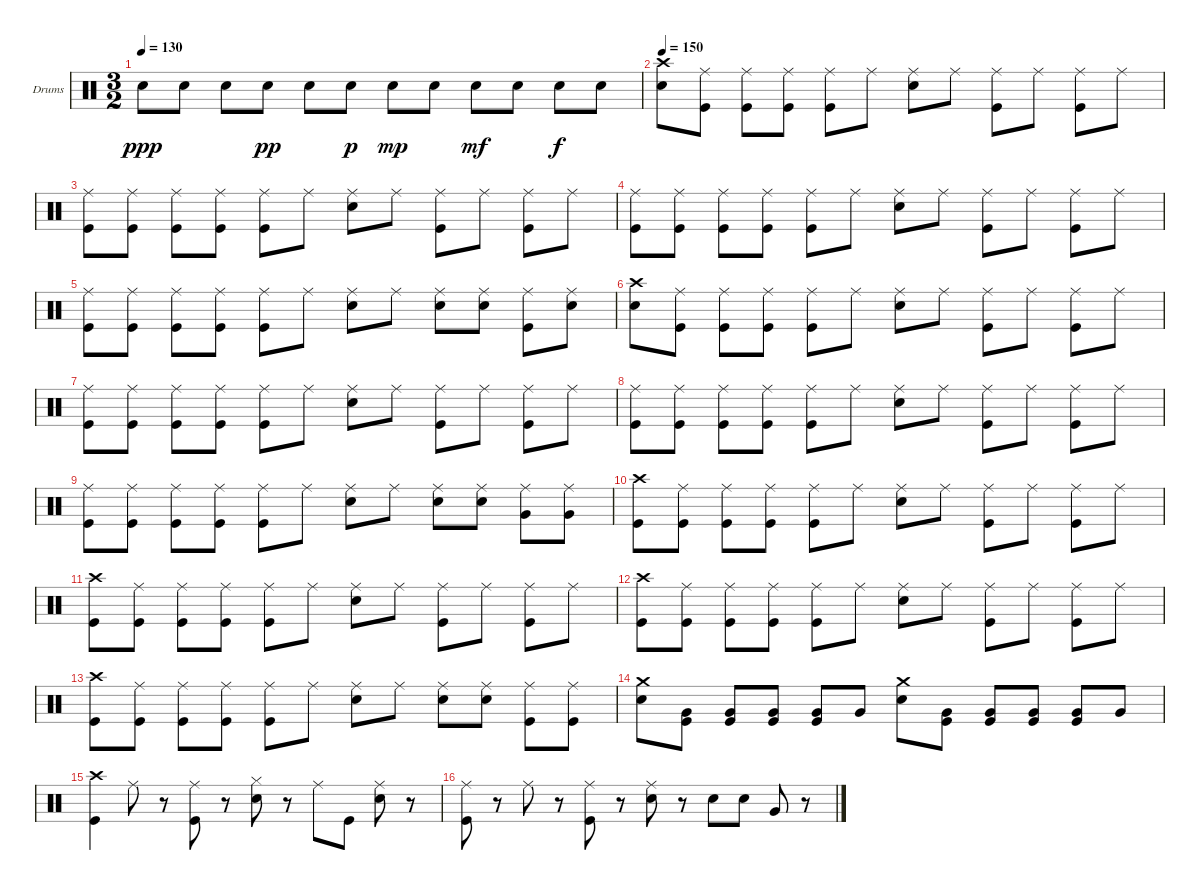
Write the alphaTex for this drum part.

\bracketExtendMode groupsimilarinstruments
\firstSystemTrackNameOrientation horizontal
\otherSystemsTrackNameOrientation horizontal
\track ("Барабаны" "Drums") {instrument percussion}
\staff {score}
\articulation defaults
\ts (3 2)
\tempo 130
\clef neutral
\ks c "Snare (hit) 2".8{dy ppp} "Snare (hit) 2".8 "Snare (hit) 2".8 "Snare (hit) 2".8{dy pp} "Snare (hit) 2".8 "Snare (hit) 2".8{dy p} "Snare (hit) 2".8{dy mp} "Snare (hit) 2".8 "Snare (hit) 2".8{dy mf} "Snare (hit) 2".8 "Snare (hit) 2".8{dy f} "Snare (hit) 2".8
|
\tempo 150
("Crash high (hit)" "Snare (hit) 2").8 ("Ride (middle)" "Kick (hit)").8 ("Ride (middle)" "Kick (hit)").8 ("Kick (hit)" "Ride (middle)").8 ("Ride (middle)" "Kick (hit)").8 "Ride (middle)".8 ("Snare (hit) 2" "Ride (middle)").8 "Ride (middle)".8 ("Kick (hit)" "Ride (middle)").8 "Ride (middle)".8 ("Ride (middle)" "Kick (hit)").8 "Ride (middle)".8 |
("Kick (hit)" "Ride (middle)").8 ("Ride (middle)" "Kick (hit)").8 ("Ride (middle)" "Kick (hit)").8 ("Ride (middle)" "Kick (hit)").8 ("Kick (hit)" "Ride (middle)").8 "Ride (middle)".8 ("Snare (hit) 2" "Ride (middle)").8 "Ride (middle)".8 ("Kick (hit)" "Ride (middle)").8 "Ride (middle)".8 ("Kick (hit)" "Ride (middle)").8 "Ride (middle)".8 |
("Kick (hit)" "Ride (middle)").8 ("Kick (hit)" "Ride (middle)").8 ("Ride (middle)" "Kick (hit)").8 ("Ride (middle)" "Kick (hit)").8 ("Kick (hit)" "Ride (middle)").8 "Ride (middle)".8 ("Snare (hit) 2" "Ride (middle)").8 "Ride (middle)".8 ("Ride (middle)" "Kick (hit)").8 "Ride (middle)".8 ("Ride (middle)" "Kick (hit)").8 "Ride (middle)".8 |
("Kick (hit)" "Ride (middle)").8 ("Ride (middle)" "Kick (hit)").8 ("Kick (hit)" "Ride (middle)").8 ("Kick (hit)" "Ride (middle)").8 ("Ride (middle)" "Kick (hit)").8 "Ride (middle)".8 ("Ride (middle)" "Snare (hit) 2").8 "Ride (middle)".8 ("Ride (middle)" "Snare (hit) 2").8 ("Snare (hit) 2" "Ride (middle)").8 ("Kick (hit)" "Ride (middle)").8 ("Snare (hit) 2" "Ride (middle)").8 |
("Crash high (hit)" "Snare (hit) 2").8 ("Ride (middle)" "Kick (hit)").8 ("Kick (hit)" "Ride (middle)").8 ("Kick (hit)" "Ride (middle)").8 ("Kick (hit)" "Ride (middle)").8 "Ride (middle)".8 ("Snare (hit) 2" "Ride (middle)").8 "Ride (middle)".8 ("Kick (hit)" "Ride (middle)").8 "Ride (middle)".8 ("Kick (hit)" "Ride (middle)").8 "Ride (middle)".8 |
("Kick (hit)" "Ride (middle)").8 ("Kick (hit)" "Ride (middle)").8 ("Ride (middle)" "Kick (hit)").8 ("Kick (hit)" "Ride (middle)").8 ("Kick (hit)" "Ride (middle)").8 "Ride (middle)".8 ("Ride (middle)" "Snare (hit) 2").8 "Ride (middle)".8 ("Ride (middle)" "Kick (hit)").8 "Ride (middle)".8 ("Ride (middle)" "Kick (hit)").8 "Ride (middle)".8 |
("Ride (middle)" "Kick (hit)").8 ("Ride (middle)" "Kick (hit)").8 ("Ride (middle)" "Kick (hit)").8 ("Kick (hit)" "Ride (middle)").8 ("Kick (hit)" "Ride (middle)").8 "Ride (middle)".8 ("Snare (hit) 2" "Ride (middle)").8 "Ride (middle)".8 ("Ride (middle)" "Kick (hit)").8 "Ride (middle)".8 ("Ride (middle)" "Kick (hit)").8 "Ride (middle)".8 |
("Kick (hit)" "Ride (middle)").8 ("Kick (hit)" "Ride (middle)").8 ("Kick (hit)" "Ride (middle)").8 ("Kick (hit)" "Ride (middle)").8 ("Ride (middle)" "Kick (hit)").8 "Ride (middle)".8 ("Ride (middle)" "Snare (hit) 2").8 "Ride (middle)".8 ("Snare (hit) 2" "Ride (middle)").8 ("Snare (hit) 2" "Ride (middle)").8 ("Very Low Tom (hit)" "Ride (middle)").8 ("Ride (middle)" "Very Low Tom (hit)").8 |
("Crash high (hit)" "Kick (hit)").8 ("Ride (middle)" "Kick (hit)").8 ("Kick (hit)" "Ride (middle)").8 ("Kick (hit)" "Ride (middle)").8 ("Kick (hit)" "Ride (middle)").8 "Ride (middle)".8 ("Snare (hit) 2" "Ride (middle)").8 "Ride (middle)".8 ("Kick (hit)" "Ride (middle)").8 "Ride (middle)".8 ("Kick (hit)" "Ride (middle)").8 "Ride (middle)".8 |
("Crash high (hit)" "Kick (hit)").8 ("Kick (hit)" "Ride (middle)").8 ("Kick (hit)" "Ride (middle)").8 ("Kick (hit)" "Ride (middle)").8 ("Kick (hit)" "Ride (middle)").8 "Ride (middle)".8 ("Snare (hit) 2" "Ride (middle)").8 "Ride (middle)".8 ("Ride (middle)" "Kick (hit)").8 "Ride (middle)".8 ("Ride (middle)" "Kick (hit)").8 "Ride (middle)".8 |
("Kick (hit)" "Crash high (hit)").8 ("Ride (middle)" "Kick (hit)").8 ("Kick (hit)" "Ride (middle)").8 ("Ride (middle)" "Kick (hit)").8 ("Ride (middle)" "Kick (hit)").8 "Ride (middle)".8 ("Ride (middle)" "Snare (hit) 2").8 "Ride (middle)".8 ("Ride (middle)" "Kick (hit)").8 "Ride (middle)".8 ("Ride (middle)" "Kick (hit)").8 "Ride (middle)".8 |
("Crash high (hit)" "Kick (hit)").8 ("Kick (hit)" "Ride (middle)").8 ("Ride (middle)" "Kick (hit)").8 ("Ride (middle)" "Kick (hit)").8 ("Kick (hit)" "Ride (middle)").8 "Ride (middle)".8 ("Snare (hit) 2" "Ride (middle)").8 "Ride (middle)".8 ("Snare (hit) 2" "Ride (middle)").8 ("Snare (hit) 2" "Ride (middle)").8 ("Ride (middle)" "Kick (hit)").8 ("Ride (middle)" "Kick (hit)").8 |
("Crash medium (hit)" "Snare (hit) 2").8 ("Very Low Tom (hit)" "Kick (hit)").8 ("Kick (hit)" "Very Low Tom (hit)").8 ("Kick (hit)" "Very Low Tom (hit)").8 ("Very Low Tom (hit)" "Kick (hit)").8 "Very Low Tom (hit)".8 ("Crash medium (hit)" "Snare (hit) 2").8 ("Kick (hit)" "Very Low Tom (hit)").8 ("Very Low Tom (hit)" "Kick (hit)").8 ("Very Low Tom (hit)" "Kick (hit)").8 ("Very Low Tom (hit)" "Kick (hit)").8 "Very Low Tom (hit)".8 |
("Crash high (hit)" "Kick (hit)").4 "Ride (middle)".8 r.8 ("Ride (middle)" "Kick (hit)").8 r.8 ("Hi-Hat (closed)" "Snare (hit) 2").8 r.8 "Ride (middle)".8 "Kick (hit)".8 ("Ride (middle)" "Snare (hit) 2").8 r.8 |
("Kick (hit)" "Ride (middle)").8 r.8 "Ride (middle)".8 r.8 ("Ride (middle)" "Kick (hit)").8 r.8 ("Ride (middle)" "Snare (hit) 2").8 r.8 "Snare (hit) 2".8 "Snare (hit) 2".8 "Very Low Tom (hit)".8 r.8
